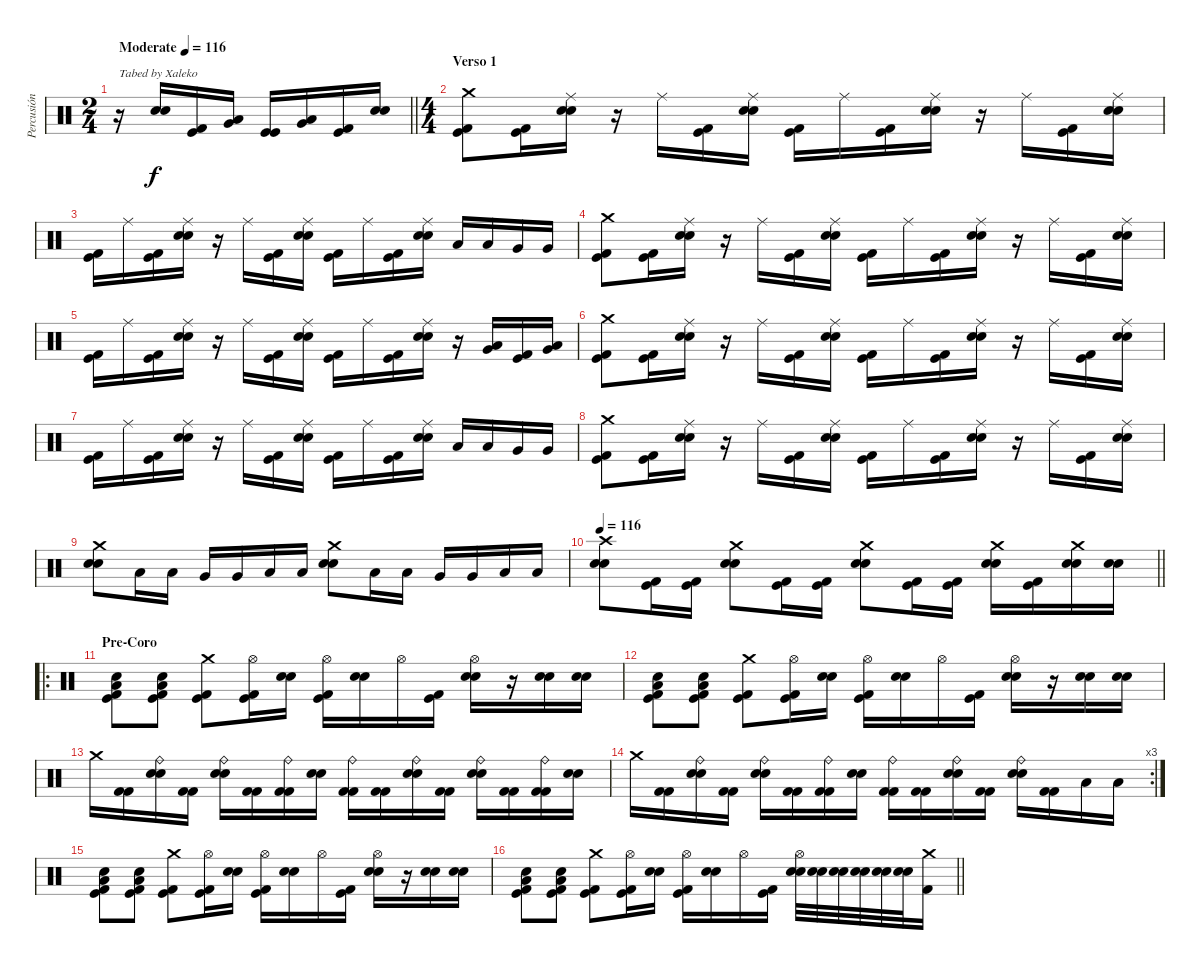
\track ("Percusión" "Percusión") {instrument percussion}
\staff {score}
\articulation defaults
\ts (2 4)
\tempo (116 "Moderate")
\clef neutral
\barLineRight lightlight
\ks c
r.16{txt "Tabed by Xaleko" dy f} ("Snare (hit) 2" "Electric Snare (hit)").16 ("Kick (hit)" "Kick (hit) 2").16 ("Low Tom (hit)" "Very Low Tom (hit)").16 ("Kick (hit)" "Kick (hit)").16 ("Low Tom (hit)" "Very Low Tom (hit)").16 ("Kick (hit)" "Kick (hit) 2").16 ("Electric Snare (hit)" "Snare (hit) 2").16 |
\ts (4 4)
\section ("" "Verso 1")
("Crash medium (hit)" "Kick (hit)" "Kick (hit) 2").8 ("Kick (hit)" "Kick (hit) 2").16 ("Ride (middle)" "Electric Snare (hit)" "Snare (hit) 2").16 r.16 "Ride (middle)".16 ("Kick (hit)" "Kick (hit) 2").16 ("Ride (middle)" "Electric Snare (hit)" "Snare (hit) 2").16 ("Kick (hit)" "Kick (hit) 2").16 "Ride (middle)".16 ("Kick (hit)" "Kick (hit) 2").16 ("Ride (middle)" "Electric Snare (hit)" "Snare (hit) 2").16 r.16 "Ride (middle)".16 ("Kick (hit)" "Kick (hit) 2").16 ("Ride (middle)" "Electric Snare (hit)" "Snare (hit) 2").16 |
("Kick (hit)" "Kick (hit) 2").16 "Ride (middle)".16 ("Kick (hit)" "Kick (hit) 2").16 ("Ride (middle)" "Electric Snare (hit)" "Snare (hit) 2").16 r.16 "Ride (middle)".16 ("Kick (hit)" "Kick (hit) 2").16 ("Ride (middle)" "Electric Snare (hit)" "Snare (hit) 2").16 ("Kick (hit)" "Kick (hit) 2").16 "Ride (middle)".16 ("Kick (hit)" "Kick (hit) 2").16 ("Ride (middle)" "Electric Snare (hit)" "Snare (hit) 2").16 "Low Tom (hit)".16 "Low Tom (hit)".16 "Very Low Tom (hit)".16 "Very Low Tom (hit)".16 |
("Crash medium (hit)" "Kick (hit)" "Kick (hit) 2").8 ("Kick (hit)" "Kick (hit) 2").16 ("Ride (middle)" "Electric Snare (hit)" "Snare (hit) 2").16 r.16 "Ride (middle)".16 ("Kick (hit)" "Kick (hit) 2").16 ("Ride (middle)" "Electric Snare (hit)" "Snare (hit) 2").16 ("Kick (hit)" "Kick (hit) 2").16 "Ride (middle)".16 ("Kick (hit)" "Kick (hit) 2").16 ("Ride (middle)" "Electric Snare (hit)" "Snare (hit) 2").16 r.16 "Ride (middle)".16 ("Kick (hit)" "Kick (hit) 2").16 ("Ride (middle)" "Electric Snare (hit)" "Snare (hit) 2").16 |
("Kick (hit)" "Kick (hit) 2").16 "Ride (middle)".16 ("Kick (hit)" "Kick (hit) 2").16 ("Ride (middle)" "Electric Snare (hit)" "Snare (hit) 2").16 r.16 "Ride (middle)".16 ("Kick (hit)" "Kick (hit) 2").16 ("Ride (middle)" "Electric Snare (hit)" "Snare (hit) 2").16 ("Kick (hit)" "Kick (hit) 2").16 "Ride (middle)".16 ("Kick (hit)" "Kick (hit) 2").16 ("Ride (middle)" "Electric Snare (hit)" "Snare (hit) 2").16 r.16 ("Low Tom (hit)" "Very Low Tom (hit)").16 ("Kick (hit)" "Kick (hit) 2").16 ("Low Tom (hit)" "Very Low Tom (hit)").16 |
("Crash medium (hit)" "Kick (hit)" "Kick (hit) 2").8 ("Kick (hit)" "Kick (hit) 2").16 ("Ride (middle)" "Electric Snare (hit)" "Snare (hit) 2").16 r.16 "Ride (middle)".16 ("Kick (hit)" "Kick (hit) 2").16 ("Ride (middle)" "Electric Snare (hit)" "Snare (hit) 2").16 ("Kick (hit)" "Kick (hit) 2").16 "Ride (middle)".16 ("Kick (hit)" "Kick (hit) 2").16 ("Ride (middle)" "Electric Snare (hit)" "Snare (hit) 2").16 r.16 "Ride (middle)".16 ("Kick (hit)" "Kick (hit) 2").16 ("Ride (middle)" "Electric Snare (hit)" "Snare (hit) 2").16 |
("Kick (hit)" "Kick (hit) 2").16 "Ride (middle)".16 ("Kick (hit)" "Kick (hit) 2").16 ("Ride (middle)" "Electric Snare (hit)" "Snare (hit) 2").16 r.16 "Ride (middle)".16 ("Kick (hit)" "Kick (hit) 2").16 ("Ride (middle)" "Electric Snare (hit)" "Snare (hit) 2").16 ("Kick (hit)" "Kick (hit) 2").16 "Ride (middle)".16 ("Kick (hit)" "Kick (hit) 2").16 ("Ride (middle)" "Electric Snare (hit)" "Snare (hit) 2").16 "Low Tom (hit)".16 "Low Tom (hit)".16 "Very Low Tom (hit)".16 "Very Low Tom (hit)".16 |
("Crash medium (hit)" "Kick (hit)" "Kick (hit) 2").8 ("Kick (hit)" "Kick (hit) 2").16 ("Ride (middle)" "Electric Snare (hit)" "Snare (hit) 2").16 r.16 "Ride (middle)".16 ("Kick (hit)" "Kick (hit) 2").16 ("Ride (middle)" "Electric Snare (hit)" "Snare (hit) 2").16 ("Kick (hit)" "Kick (hit) 2").16 "Ride (middle)".16 ("Kick (hit)" "Kick (hit) 2").16 ("Ride (middle)" "Electric Snare (hit)" "Snare (hit) 2").16 r.16 "Ride (middle)".16 ("Kick (hit)" "Kick (hit) 2").16 ("Ride (middle)" "Electric Snare (hit)" "Snare (hit) 2").16 |
("Crash medium (hit)" "Electric Snare (hit)" "Snare (hit) 2").8 "Low Tom (hit)".16 "Low Tom (hit)".16 "Very Low Tom (hit)".16 "Very Low Tom (hit)".16 "Low Floor Tom (hit)".16 "Low Floor Tom (hit)".16 ("Crash medium (hit)" "Electric Snare (hit)" "Snare (hit) 2").8 "Low Tom (hit)".16 "Low Tom (hit)".16 "Very Low Tom (hit)".16 "Very Low Tom (hit)".16 "Low Floor Tom (hit)".16 "Low Floor Tom (hit)".16 |
\tempo 116
\barLineRight lightlight
("Crash high (hit)" "Electric Snare (hit)" "Snare (hit) 2").8 ("Kick (hit)" "Kick (hit) 2").16 ("Kick (hit)" "Kick (hit) 2").16 ("Crash medium (hit)" "Electric Snare (hit)" "Snare (hit) 2").8 ("Kick (hit)" "Kick (hit) 2").16 ("Kick (hit)" "Kick (hit) 2").16 ("Crash medium (hit)" "Electric Snare (hit)" "Snare (hit) 2").8 ("Kick (hit)" "Kick (hit) 2").16 ("Kick (hit)" "Kick (hit) 2").16 ("Crash medium (hit)" "Electric Snare (hit)" "Snare (hit) 2").16 ("Kick (hit)" "Kick (hit) 2").16 ("Crash medium (hit)" "Electric Snare (hit)" "Snare (hit) 2").16 ("Electric Snare (hit)" "Snare (hit) 2").16 |
\ro
\section ("" "Pre-Coro")
("Low Floor Tom (hit)" "Electric Snare (hit)" "Kick (hit)" "Kick (hit) 2").8 ("Low Floor Tom (hit)" "Electric Snare (hit)" "Kick (hit)" "Kick (hit) 2").8 ("Crash medium (hit)" "Kick (hit)" "Kick (hit) 2").8 ("Hi-Hat (open)" "Kick (hit)" "Kick (hit) 2").16 ("Electric Snare (hit)" "Snare (hit) 2").16 ("Hi-Hat (open)" "Kick (hit)" "Kick (hit) 2").16 ("Electric Snare (hit)" "Snare (hit) 2").16 "Hi-Hat (open)".16 ("Kick (hit)" "Kick (hit) 2").16 ("Hi-Hat (open)" "Electric Snare (hit)" "Snare (hit) 2").16 r.16 ("Electric Snare (hit)" "Snare (hit) 2").16 ("Electric Snare (hit)" "Snare (hit) 2").16 |
("Low Floor Tom (hit)" "Electric Snare (hit)" "Kick (hit)" "Kick (hit) 2").8 ("Low Floor Tom (hit)" "Electric Snare (hit)" "Kick (hit)" "Kick (hit) 2").8 ("Crash medium (hit)" "Kick (hit)" "Kick (hit) 2").8 ("Hi-Hat (open)" "Kick (hit)" "Kick (hit) 2").16 ("Electric Snare (hit)" "Snare (hit) 2").16 ("Hi-Hat (open)" "Kick (hit)" "Kick (hit) 2").16 ("Electric Snare (hit)" "Snare (hit) 2").16 "Hi-Hat (open)".16 ("Kick (hit)" "Kick (hit) 2").16 ("Hi-Hat (open)" "Electric Snare (hit)" "Snare (hit) 2").16 r.16 ("Electric Snare (hit)" "Snare (hit) 2").16 ("Electric Snare (hit)" "Snare (hit) 2").16 |
"Crash medium (hit)".16 ("Kick (hit) 2" "Kick (hit) 2").16 ("Ride (bell)" "Snare (hit) 2" "Electric Snare (hit)").16 ("Kick (hit) 2" "Kick (hit) 2").16 ("Ride (bell)" "Snare (hit) 2" "Electric Snare (hit)").16 ("Kick (hit) 2" "Kick (hit) 2").16 ("Ride (bell)" "Kick (hit) 2" "Kick (hit) 2").16 ("Snare (hit) 2" "Electric Snare (hit)").16 ("Ride (bell)" "Kick (hit) 2" "Kick (hit) 2").16 ("Kick (hit) 2" "Kick (hit) 2").16 ("Ride (bell)" "Snare (hit) 2" "Electric Snare (hit)").16 ("Kick (hit) 2" "Kick (hit) 2").16 ("Ride (bell)" "Snare (hit) 2" "Electric Snare (hit)").16 ("Kick (hit) 2" "Kick (hit) 2").16 ("Ride (bell)" "Kick (hit) 2" "Kick (hit) 2").16 ("Snare (hit) 2" "Electric Snare (hit)").16 |
\rc 3 "Crash medium (hit)".16
("Kick (hit) 2" "Kick (hit) 2").16 ("Ride (bell)" "Snare (hit) 2" "Electric Snare (hit)").16 ("Kick (hit) 2" "Kick (hit) 2").16 ("Ride (bell)" "Snare (hit) 2" "Electric Snare (hit)").16 ("Kick (hit) 2" "Kick (hit) 2").16 ("Ride (bell)" "Kick (hit) 2" "Kick (hit) 2").16 ("Snare (hit) 2" "Electric Snare (hit)").16 ("Ride (bell)" "Kick (hit) 2" "Kick (hit) 2").16 ("Kick (hit) 2" "Kick (hit) 2").16 ("Ride (bell)" "Snare (hit) 2" "Electric Snare (hit)").16 ("Kick (hit) 2" "Kick (hit) 2").16 ("Ride (bell)" "Snare (hit) 2" "Electric Snare (hit)").16 ("Kick (hit) 2" "Kick (hit) 2").16 "Low Tom (hit)".16 "Low Tom (hit)".16 |
("Low Floor Tom (hit)" "Electric Snare (hit)" "Kick (hit)" "Kick (hit) 2").8 ("Low Floor Tom (hit)" "Electric Snare (hit)" "Kick (hit)" "Kick (hit) 2").8 ("Crash medium (hit)" "Kick (hit)" "Kick (hit) 2").8 ("Hi-Hat (open)" "Kick (hit)" "Kick (hit) 2").16 ("Electric Snare (hit)" "Snare (hit) 2").16 ("Hi-Hat (open)" "Kick (hit)" "Kick (hit) 2").16 ("Electric Snare (hit)" "Snare (hit) 2").16 "Hi-Hat (open)".16 ("Kick (hit)" "Kick (hit) 2").16 ("Hi-Hat (open)" "Electric Snare (hit)" "Snare (hit) 2").16 r.16 ("Electric Snare (hit)" "Snare (hit) 2").16 ("Electric Snare (hit)" "Snare (hit) 2").16 |
\barLineRight lightlight
("Low Floor Tom (hit)" "Electric Snare (hit)" "Kick (hit)" "Kick (hit) 2").8 ("Low Floor Tom (hit)" "Electric Snare (hit)" "Kick (hit)" "Kick (hit) 2").8 ("Crash medium (hit)" "Kick (hit)" "Kick (hit) 2").8 ("Hi-Hat (open)" "Kick (hit)" "Kick (hit) 2").16 ("Electric Snare (hit)" "Snare (hit) 2").16 ("Hi-Hat (open)" "Kick (hit)" "Kick (hit) 2").16 ("Electric Snare (hit)" "Snare (hit) 2").16 "Hi-Hat (open)".16 ("Kick (hit)" "Kick (hit) 2").16 ("Hi-Hat (open)" "Electric Snare (hit)" "Snare (hit) 2").32 ("Electric Snare (hit)" "Snare (hit) 2").32 ("Electric Snare (hit)" "Snare (hit) 2").32 ("Electric Snare (hit)" "Snare (hit) 2").32 ("Electric Snare (hit)" "Snare (hit) 2").32 ("Electric Snare (hit)" "Snare (hit) 2").32 ("Crash medium (hit)" "Kick (hit) 2").16
